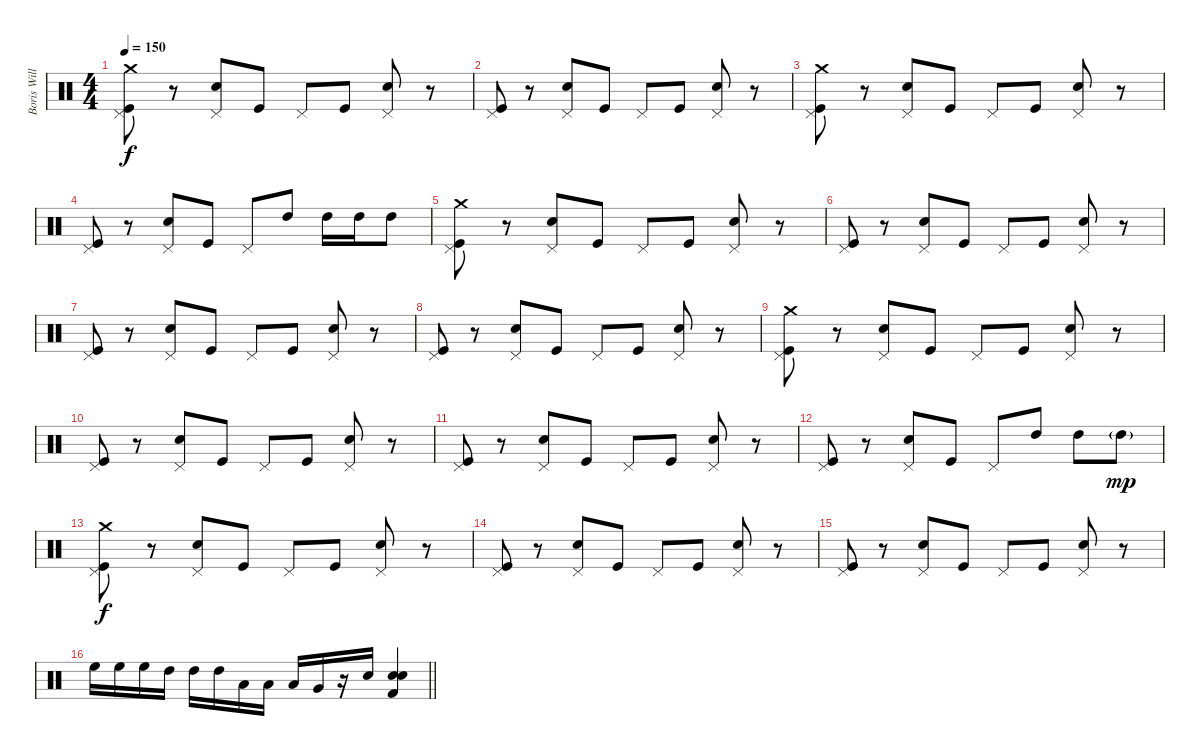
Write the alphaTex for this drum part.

\track ("Boris Williams" "Boris Will") {instrument percussion}
\staff {score}
\articulation defaults
\ts (4 4)
\tempo 150
\clef neutral
\ks c
("Pedal Hi-Hat (hit)" "Kick (hit)" "Crash medium (hit)").8{dy f} r.8 ("Pedal Hi-Hat (hit)" "Snare (hit) 2").8 "Kick (hit)".8 "Pedal Hi-Hat (hit)".8 "Kick (hit)".8 ("Pedal Hi-Hat (hit)" "Snare (hit) 2").8 r.8 |
("Pedal Hi-Hat (hit)" "Kick (hit)").8 r.8 ("Pedal Hi-Hat (hit)" "Snare (hit) 2").8 "Kick (hit)".8 "Pedal Hi-Hat (hit)".8 "Kick (hit)".8 ("Pedal Hi-Hat (hit)" "Snare (hit) 2").8 r.8 |
("Pedal Hi-Hat (hit)" "Kick (hit)" "Crash medium (hit)").8 r.8 ("Pedal Hi-Hat (hit)" "Snare (hit) 2").8 "Kick (hit)".8 "Pedal Hi-Hat (hit)".8 "Kick (hit)".8 ("Pedal Hi-Hat (hit)" "Snare (hit) 2").8 r.8 |
("Pedal Hi-Hat (hit)" "Kick (hit)").8 r.8 ("Pedal Hi-Hat (hit)" "Snare (hit) 2").8 "Kick (hit)".8 "Pedal Hi-Hat (hit)".8 "High Tom (hit)".8 "High Tom (hit)".16 "High Tom (hit)".16 "High Tom (hit)".8 |
("Pedal Hi-Hat (hit)" "Kick (hit)" "Crash medium (hit)").8 r.8 ("Pedal Hi-Hat (hit)" "Snare (hit) 2").8 "Kick (hit)".8 "Pedal Hi-Hat (hit)".8 "Kick (hit)".8 ("Pedal Hi-Hat (hit)" "Snare (hit) 2").8 r.8 |
("Pedal Hi-Hat (hit)" "Kick (hit)").8 r.8 ("Pedal Hi-Hat (hit)" "Snare (hit) 2").8 "Kick (hit)".8 "Pedal Hi-Hat (hit)".8 "Kick (hit)".8 ("Pedal Hi-Hat (hit)" "Snare (hit) 2").8 r.8 |
("Pedal Hi-Hat (hit)" "Kick (hit)").8 r.8 ("Pedal Hi-Hat (hit)" "Snare (hit) 2").8 "Kick (hit)".8 "Pedal Hi-Hat (hit)".8 "Kick (hit)".8 ("Pedal Hi-Hat (hit)" "Snare (hit) 2").8 r.8 |
("Pedal Hi-Hat (hit)" "Kick (hit)").8 r.8 ("Pedal Hi-Hat (hit)" "Snare (hit) 2").8 "Kick (hit)".8 "Pedal Hi-Hat (hit)".8 "Kick (hit)".8 ("Pedal Hi-Hat (hit)" "Snare (hit) 2").8 r.8 |
("Pedal Hi-Hat (hit)" "Kick (hit)" "Crash medium (hit)").8 r.8 ("Pedal Hi-Hat (hit)" "Snare (hit) 2").8 "Kick (hit)".8 "Pedal Hi-Hat (hit)".8 "Kick (hit)".8 ("Pedal Hi-Hat (hit)" "Snare (hit) 2").8 r.8 |
("Pedal Hi-Hat (hit)" "Kick (hit)").8 r.8 ("Pedal Hi-Hat (hit)" "Snare (hit) 2").8 "Kick (hit)".8 "Pedal Hi-Hat (hit)".8 "Kick (hit)".8 ("Pedal Hi-Hat (hit)" "Snare (hit) 2").8 r.8 |
("Pedal Hi-Hat (hit)" "Kick (hit)").8 r.8 ("Pedal Hi-Hat (hit)" "Snare (hit) 2").8 "Kick (hit)".8 "Pedal Hi-Hat (hit)".8 "Kick (hit)".8 ("Pedal Hi-Hat (hit)" "Snare (hit) 2").8 r.8 |
("Pedal Hi-Hat (hit)" "Kick (hit)").8 r.8 ("Pedal Hi-Hat (hit)" "Snare (hit) 2").8 "Kick (hit)".8 "Pedal Hi-Hat (hit)".8 "High Tom (hit)".8 "High Tom (hit)".8 "High Tom (hit)"{g}.8{dy mp} |
("Pedal Hi-Hat (hit)" "Kick (hit)" "Crash medium (hit)").8{dy f} r.8 ("Pedal Hi-Hat (hit)" "Snare (hit) 2").8 "Kick (hit)".8 "Pedal Hi-Hat (hit)".8 "Kick (hit)".8 ("Pedal Hi-Hat (hit)" "Snare (hit) 2").8 r.8 |
("Pedal Hi-Hat (hit)" "Kick (hit)").8 r.8 ("Pedal Hi-Hat (hit)" "Snare (hit) 2").8 "Kick (hit)".8 "Pedal Hi-Hat (hit)".8 "Kick (hit)".8 ("Pedal Hi-Hat (hit)" "Snare (hit) 2").8 r.8 |
("Pedal Hi-Hat (hit)" "Kick (hit)").8 r.8 ("Pedal Hi-Hat (hit)" "Snare (hit) 2").8 "Kick (hit)".8 "Pedal Hi-Hat (hit)".8 "Kick (hit)".8 ("Pedal Hi-Hat (hit)" "Snare (hit) 2").8 r.8 |
\barLineRight lightlight "High Floor Tom (hit)".16 "High Floor Tom (hit)".16 "High Floor Tom (hit)".16 "High Tom (hit)".16 "High Tom (hit)".16 "High Tom (hit)".16 "Low Tom (hit)".16 "Low Tom (hit)".16 "Low Tom (hit)".16 "Very Low Tom (hit)".16
r.16 "Snare (hit) 2".16 ("Kick (hit) 2" "Snare (hit) 2" "Snare (hit) 2").4
